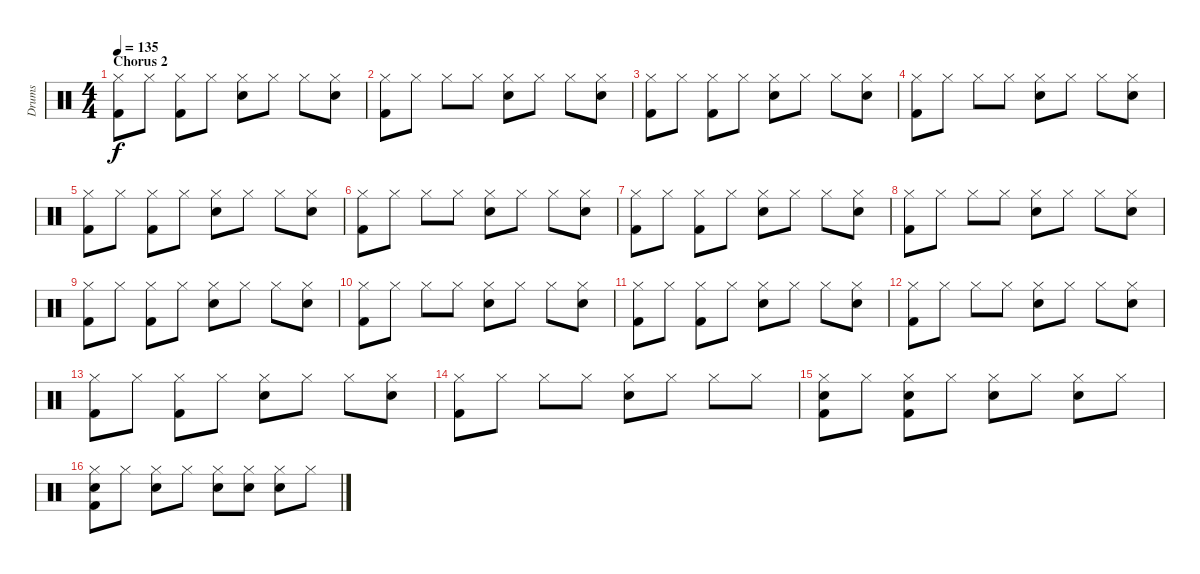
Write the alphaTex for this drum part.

\track ("Drums" "Drums") {instrument percussion}
\staff {score}
\articulation defaults
\ts (4 4)
\section ("" "Chorus 2")
\tempo 135
\clef neutral
\ks c
("Kick (hit) 2" "Hi-Hat (closed)").8{dy f} "Hi-Hat (closed)".8 ("Kick (hit) 2" "Hi-Hat (closed)").8 "Hi-Hat (closed)".8 ("Snare (hit) 2" "Hi-Hat (closed)").8 "Hi-Hat (closed)".8 "Hi-Hat (closed)".8 ("Snare (hit) 2" "Hi-Hat (closed)").8 |
("Kick (hit) 2" "Hi-Hat (closed)").8 "Hi-Hat (closed)".8 "Hi-Hat (closed)".8 "Hi-Hat (closed)".8 ("Snare (hit) 2" "Hi-Hat (closed)").8 "Hi-Hat (closed)".8 "Hi-Hat (closed)".8 ("Snare (hit) 2" "Hi-Hat (closed)").8 |
("Kick (hit) 2" "Hi-Hat (closed)").8 "Hi-Hat (closed)".8 ("Kick (hit) 2" "Hi-Hat (closed)").8 "Hi-Hat (closed)".8 ("Snare (hit) 2" "Hi-Hat (closed)").8 "Hi-Hat (closed)".8 "Hi-Hat (closed)".8 ("Snare (hit) 2" "Hi-Hat (closed)").8 |
("Kick (hit) 2" "Hi-Hat (closed)").8 "Hi-Hat (closed)".8 "Hi-Hat (closed)".8 "Hi-Hat (closed)".8 ("Snare (hit) 2" "Hi-Hat (closed)").8 "Hi-Hat (closed)".8 "Hi-Hat (closed)".8 ("Snare (hit) 2" "Hi-Hat (closed)").8 |
("Kick (hit) 2" "Hi-Hat (closed)").8 "Hi-Hat (closed)".8 ("Kick (hit) 2" "Hi-Hat (closed)").8 "Hi-Hat (closed)".8 ("Snare (hit) 2" "Hi-Hat (closed)").8 "Hi-Hat (closed)".8 "Hi-Hat (closed)".8 ("Snare (hit) 2" "Hi-Hat (closed)").8 |
("Kick (hit) 2" "Hi-Hat (closed)").8 "Hi-Hat (closed)".8 "Hi-Hat (closed)".8 "Hi-Hat (closed)".8 ("Snare (hit) 2" "Hi-Hat (closed)").8 "Hi-Hat (closed)".8 "Hi-Hat (closed)".8 ("Snare (hit) 2" "Hi-Hat (closed)").8 |
("Kick (hit) 2" "Hi-Hat (closed)").8 "Hi-Hat (closed)".8 ("Kick (hit) 2" "Hi-Hat (closed)").8 "Hi-Hat (closed)".8 ("Snare (hit) 2" "Hi-Hat (closed)").8 "Hi-Hat (closed)".8 "Hi-Hat (closed)".8 ("Snare (hit) 2" "Hi-Hat (closed)").8 |
("Kick (hit) 2" "Hi-Hat (closed)").8 "Hi-Hat (closed)".8 "Hi-Hat (closed)".8 "Hi-Hat (closed)".8 ("Snare (hit) 2" "Hi-Hat (closed)").8 "Hi-Hat (closed)".8 "Hi-Hat (closed)".8 ("Snare (hit) 2" "Hi-Hat (closed)").8 |
("Kick (hit) 2" "Hi-Hat (closed)").8 "Hi-Hat (closed)".8 ("Kick (hit) 2" "Hi-Hat (closed)").8 "Hi-Hat (closed)".8 ("Snare (hit) 2" "Hi-Hat (closed)").8 "Hi-Hat (closed)".8 "Hi-Hat (closed)".8 ("Snare (hit) 2" "Hi-Hat (closed)").8 |
("Kick (hit) 2" "Hi-Hat (closed)").8 "Hi-Hat (closed)".8 "Hi-Hat (closed)".8 "Hi-Hat (closed)".8 ("Snare (hit) 2" "Hi-Hat (closed)").8 "Hi-Hat (closed)".8 "Hi-Hat (closed)".8 ("Snare (hit) 2" "Hi-Hat (closed)").8 |
("Kick (hit) 2" "Hi-Hat (closed)").8 "Hi-Hat (closed)".8 ("Kick (hit) 2" "Hi-Hat (closed)").8 "Hi-Hat (closed)".8 ("Snare (hit) 2" "Hi-Hat (closed)").8 "Hi-Hat (closed)".8 "Hi-Hat (closed)".8 ("Snare (hit) 2" "Hi-Hat (closed)").8 |
("Kick (hit) 2" "Hi-Hat (closed)").8 "Hi-Hat (closed)".8 "Hi-Hat (closed)".8 "Hi-Hat (closed)".8 ("Snare (hit) 2" "Hi-Hat (closed)").8 "Hi-Hat (closed)".8 "Hi-Hat (closed)".8 ("Snare (hit) 2" "Hi-Hat (closed)").8 |
("Kick (hit) 2" "Hi-Hat (closed)").8 "Hi-Hat (closed)".8 ("Kick (hit) 2" "Hi-Hat (closed)").8 "Hi-Hat (closed)".8 ("Snare (hit) 2" "Hi-Hat (closed)").8 "Hi-Hat (closed)".8 "Hi-Hat (closed)".8 ("Snare (hit) 2" "Hi-Hat (closed)").8 |
("Kick (hit) 2" "Hi-Hat (closed)").8 "Hi-Hat (closed)".8 "Hi-Hat (closed)".8 "Hi-Hat (closed)".8 ("Snare (hit) 2" "Hi-Hat (closed)").8 "Hi-Hat (closed)".8 "Hi-Hat (closed)".8 "Hi-Hat (closed)".8 |
("Kick (hit) 2" "Snare (hit) 2" "Hi-Hat (closed)").8 "Hi-Hat (closed)".8 ("Kick (hit) 2" "Snare (hit) 2" "Hi-Hat (closed)").8 "Hi-Hat (closed)".8 ("Snare (hit) 2" "Hi-Hat (closed)").8 "Hi-Hat (closed)".8 ("Snare (hit) 2" "Hi-Hat (closed)").8 "Hi-Hat (closed)".8 |
("Kick (hit) 2" "Snare (hit) 2" "Hi-Hat (closed)").8 "Hi-Hat (closed)".8 ("Snare (hit) 2" "Hi-Hat (closed)").8 "Hi-Hat (closed)".8 ("Snare (hit) 2" "Hi-Hat (closed)").8 ("Snare (hit) 2" "Hi-Hat (closed)").8 ("Snare (hit) 2" "Hi-Hat (closed)").8 "Hi-Hat (closed)".8
